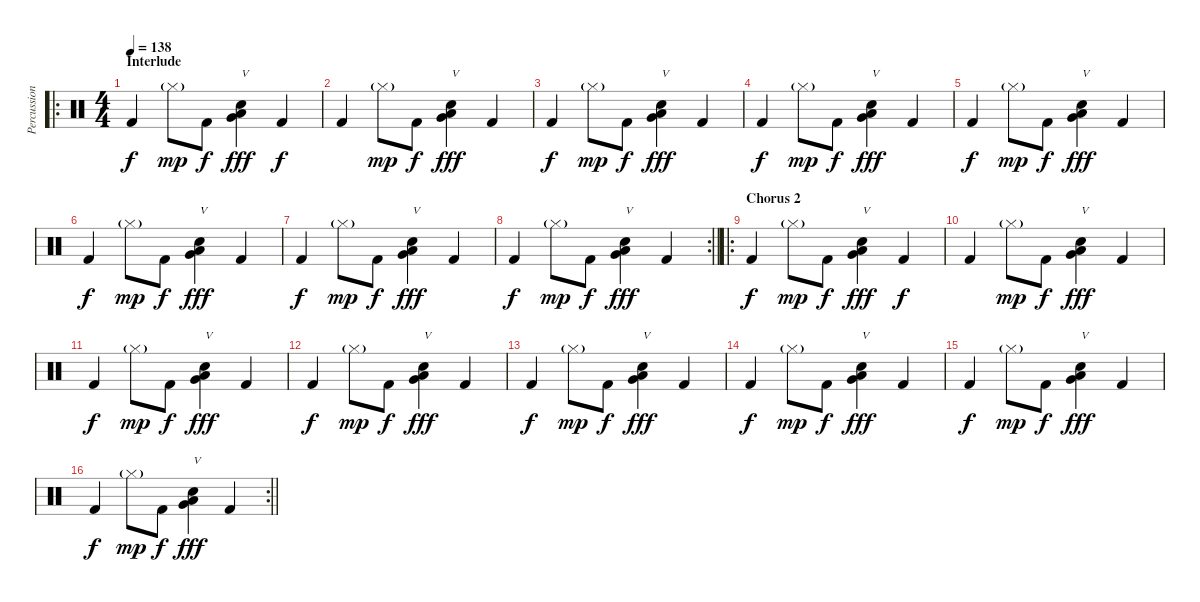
\track ("Percussion" "Percussion") {instrument percussion}
\staff {score}
\articulation defaults
\ro
\ts (4 4)
\section ("" "Interlude")
\tempo 138
\clef neutral
\ks c "Kick (hit) 2".4{dy f} "Hi-Hat (closed)"{g}.8{dy mp} "Kick (hit) 2".8{dy f}
("Low Tom (hit)" "Very Low Tom (hit)" "Snare (hit) 2").4{txt "V" dy fff} "Kick (hit) 2".4{dy f} |
"Kick (hit) 2".4 "Hi-Hat (closed)"{g}.8{dy mp} "Kick (hit) 2".8{dy f} ("Low Tom (hit)" "Very Low Tom (hit)" "Snare (hit) 2").4{txt "V" dy fff} "Kick (hit) 2".4 |
"Kick (hit) 2".4{dy f} "Hi-Hat (closed)"{g}.8{dy mp} "Kick (hit) 2".8{dy f} ("Low Tom (hit)" "Very Low Tom (hit)" "Snare (hit) 2").4{txt "V" dy fff} "Kick (hit) 2".4 |
"Kick (hit) 2".4{dy f} "Hi-Hat (closed)"{g}.8{dy mp} "Kick (hit) 2".8{dy f} ("Low Tom (hit)" "Very Low Tom (hit)" "Snare (hit) 2").4{txt "V" dy fff} "Kick (hit) 2".4 |
"Kick (hit) 2".4{dy f} "Hi-Hat (closed)"{g}.8{dy mp} "Kick (hit) 2".8{dy f} ("Low Tom (hit)" "Very Low Tom (hit)" "Snare (hit) 2").4{txt "V" dy fff} "Kick (hit) 2".4 |
"Kick (hit) 2".4{dy f} "Hi-Hat (closed)"{g}.8{dy mp} "Kick (hit) 2".8{dy f} ("Low Tom (hit)" "Very Low Tom (hit)" "Snare (hit) 2").4{txt "V" dy fff} "Kick (hit) 2".4 |
"Kick (hit) 2".4{dy f} "Hi-Hat (closed)"{g}.8{dy mp} "Kick (hit) 2".8{dy f} ("Low Tom (hit)" "Very Low Tom (hit)" "Snare (hit) 2").4{txt "V" dy fff} "Kick (hit) 2".4 |
\rc 2
\barLineRight lightlight "Kick (hit) 2".4{dy f} "Hi-Hat (closed)"{g}.8{dy mp} "Kick (hit) 2".8{dy f}
("Low Tom (hit)" "Very Low Tom (hit)" "Snare (hit) 2").4{txt "V" dy fff} "Kick (hit) 2".4 |
\ro
\section ("" "Chorus 2")
"Kick (hit) 2".4{dy f} "Hi-Hat (closed)"{g}.8{dy mp} "Kick (hit) 2".8{dy f} ("Low Tom (hit)" "Very Low Tom (hit)" "Snare (hit) 2").4{txt "V" dy fff} "Kick (hit) 2".4{dy f} |
"Kick (hit) 2".4 "Hi-Hat (closed)"{g}.8{dy mp} "Kick (hit) 2".8{dy f} ("Low Tom (hit)" "Very Low Tom (hit)" "Snare (hit) 2").4{txt "V" dy fff} "Kick (hit) 2".4 |
"Kick (hit) 2".4{dy f} "Hi-Hat (closed)"{g}.8{dy mp} "Kick (hit) 2".8{dy f} ("Low Tom (hit)" "Very Low Tom (hit)" "Snare (hit) 2").4{txt "V" dy fff} "Kick (hit) 2".4 |
"Kick (hit) 2".4{dy f} "Hi-Hat (closed)"{g}.8{dy mp} "Kick (hit) 2".8{dy f} ("Low Tom (hit)" "Very Low Tom (hit)" "Snare (hit) 2").4{txt "V" dy fff} "Kick (hit) 2".4 |
"Kick (hit) 2".4{dy f} "Hi-Hat (closed)"{g}.8{dy mp} "Kick (hit) 2".8{dy f} ("Low Tom (hit)" "Very Low Tom (hit)" "Snare (hit) 2").4{txt "V" dy fff} "Kick (hit) 2".4 |
"Kick (hit) 2".4{dy f} "Hi-Hat (closed)"{g}.8{dy mp} "Kick (hit) 2".8{dy f} ("Low Tom (hit)" "Very Low Tom (hit)" "Snare (hit) 2").4{txt "V" dy fff} "Kick (hit) 2".4 |
"Kick (hit) 2".4{dy f} "Hi-Hat (closed)"{g}.8{dy mp} "Kick (hit) 2".8{dy f} ("Low Tom (hit)" "Very Low Tom (hit)" "Snare (hit) 2").4{txt "V" dy fff} "Kick (hit) 2".4 |
\rc 2
\barLineRight lightlight "Kick (hit) 2".4{dy f} "Hi-Hat (closed)"{g}.8{dy mp} "Kick (hit) 2".8{dy f}
("Low Tom (hit)" "Very Low Tom (hit)" "Snare (hit) 2").4{txt "V" dy fff} "Kick (hit) 2".4
